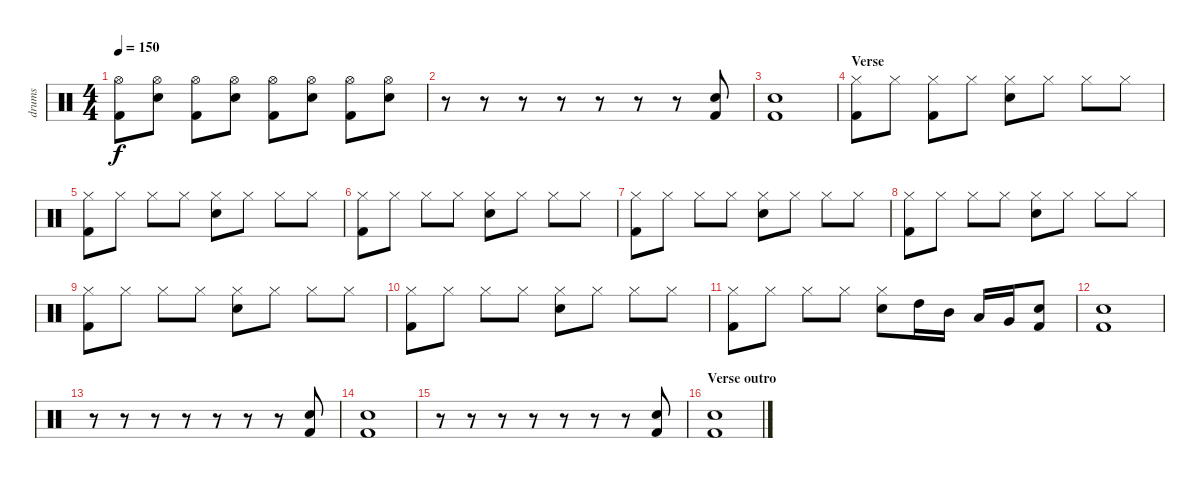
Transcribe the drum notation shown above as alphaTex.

\track ("drums" "drums") {instrument percussion}
\staff {score}
\articulation defaults
\ts (4 4)
\tempo 150
\clef neutral
\ks c
("Hi-Hat (open)" "Kick (hit) 2").8{dy f} ("Hi-Hat (open)" "Snare (hit) 2").8 ("Hi-Hat (open)" "Kick (hit) 2").8 ("Hi-Hat (open)" "Snare (hit) 2").8 ("Hi-Hat (open)" "Kick (hit) 2").8 ("Hi-Hat (open)" "Snare (hit) 2").8 ("Hi-Hat (open)" "Kick (hit) 2").8 ("Hi-Hat (open)" "Snare (hit) 2").8 |
r.8 r.8 r.8 r.8 r.8 r.8 r.8 ("Snare (hit) 2" "Kick (hit) 2").8 |
("Snare (hit) 2" "Kick (hit) 2").1 |
\section ("" "Verse")
("Hi-Hat (closed)" "Kick (hit) 2").8 "Hi-Hat (closed)".8 ("Hi-Hat (closed)" "Kick (hit) 2").8 "Hi-Hat (closed)".8 ("Hi-Hat (closed)" "Snare (hit) 2").8 "Hi-Hat (closed)".8 "Hi-Hat (closed)".8 "Hi-Hat (closed)".8 |
("Hi-Hat (closed)" "Kick (hit) 2").8 "Hi-Hat (closed)".8 "Hi-Hat (closed)".8 "Hi-Hat (closed)".8 ("Hi-Hat (closed)" "Snare (hit) 2").8 "Hi-Hat (closed)".8 "Hi-Hat (closed)".8 "Hi-Hat (closed)".8 |
("Hi-Hat (closed)" "Kick (hit) 2").8 "Hi-Hat (closed)".8 "Hi-Hat (closed)".8 "Hi-Hat (closed)".8 ("Hi-Hat (closed)" "Snare (hit) 2").8 "Hi-Hat (closed)".8 "Hi-Hat (closed)".8 "Hi-Hat (closed)".8 |
("Hi-Hat (closed)" "Kick (hit) 2").8 "Hi-Hat (closed)".8 "Hi-Hat (closed)".8 "Hi-Hat (closed)".8 ("Hi-Hat (closed)" "Snare (hit) 2").8 "Hi-Hat (closed)".8 "Hi-Hat (closed)".8 "Hi-Hat (closed)".8 |
("Hi-Hat (closed)" "Kick (hit) 2").8 "Hi-Hat (closed)".8 "Hi-Hat (closed)".8 "Hi-Hat (closed)".8 ("Hi-Hat (closed)" "Snare (hit) 2").8 "Hi-Hat (closed)".8 "Hi-Hat (closed)".8 "Hi-Hat (closed)".8 |
("Hi-Hat (closed)" "Kick (hit) 2").8 "Hi-Hat (closed)".8 "Hi-Hat (closed)".8 "Hi-Hat (closed)".8 ("Hi-Hat (closed)" "Snare (hit) 2").8 "Hi-Hat (closed)".8 "Hi-Hat (closed)".8 "Hi-Hat (closed)".8 |
("Hi-Hat (closed)" "Kick (hit) 2").8 "Hi-Hat (closed)".8 "Hi-Hat (closed)".8 "Hi-Hat (closed)".8 ("Hi-Hat (closed)" "Snare (hit) 2").8 "Hi-Hat (closed)".8 "Hi-Hat (closed)".8 "Hi-Hat (closed)".8 |
("Hi-Hat (closed)" "Kick (hit) 2").8 "Hi-Hat (closed)".8 "Hi-Hat (closed)".8 "Hi-Hat (closed)".8 ("Hi-Hat (closed)" "Snare (hit) 2").8 "High Tom (hit)".16 "Mid Tom (hit)".16 "Low Tom (hit)".16 "Very Low Tom (hit)".16 ("Snare (hit) 2" "Kick (hit) 2").8 |
("Snare (hit) 2" "Kick (hit) 2").1 |
r.8 r.8 r.8 r.8 r.8 r.8 r.8 ("Snare (hit) 2" "Kick (hit) 2").8 |
("Snare (hit) 2" "Kick (hit) 2").1 |
r.8 r.8 r.8 r.8 r.8 r.8 r.8 ("Snare (hit) 2" "Kick (hit) 2").8 |
\section ("" "Verse outro")
("Snare (hit) 2" "Kick (hit) 2").1
